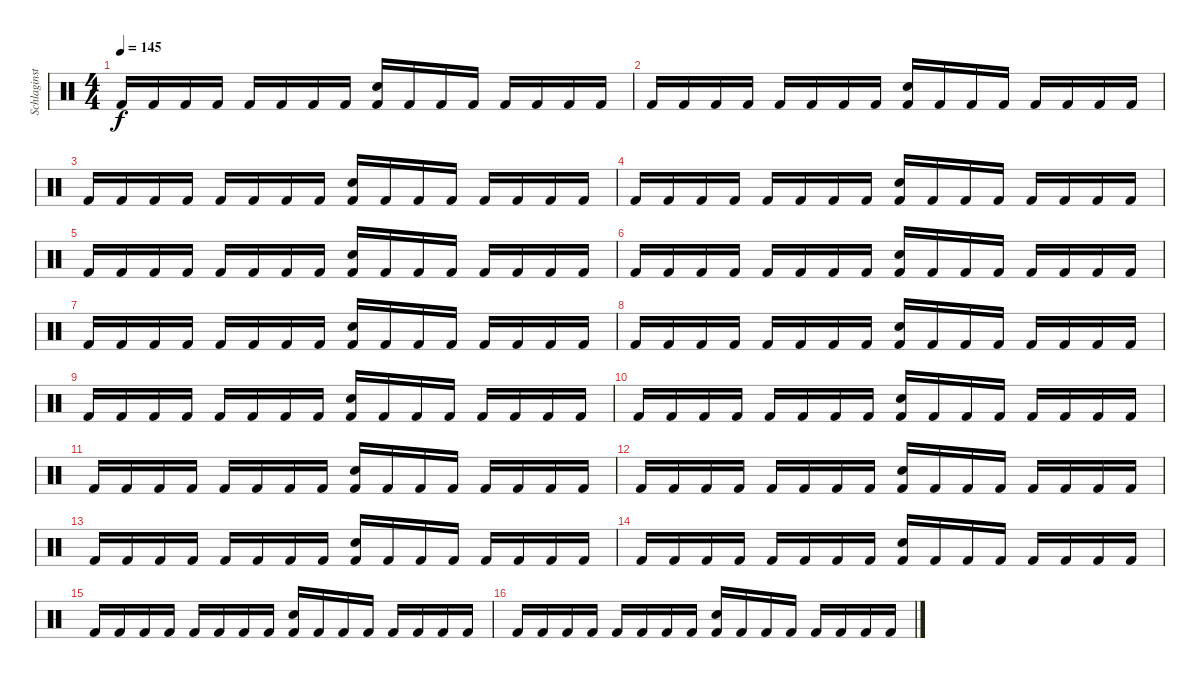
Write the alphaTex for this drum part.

\track ("Schlaginstrumente - Auswahl" "Schlaginst") {instrument percussion}
\staff {score}
\articulation defaults
\ts (4 4)
\tempo 145
\clef neutral
\ks c "Kick (hit) 2".16{dy f} "Kick (hit) 2".16 "Kick (hit) 2".16 "Kick (hit) 2".16 "Kick (hit) 2".16 "Kick (hit) 2".16 "Kick (hit) 2".16 "Kick (hit) 2".16
("Snare (hit) 2" "Kick (hit) 2").16 "Kick (hit) 2".16 "Kick (hit) 2".16 "Kick (hit) 2".16 "Kick (hit) 2".16 "Kick (hit) 2".16 "Kick (hit) 2".16 "Kick (hit) 2".16 |
"Kick (hit) 2".16 "Kick (hit) 2".16 "Kick (hit) 2".16 "Kick (hit) 2".16 "Kick (hit) 2".16 "Kick (hit) 2".16 "Kick (hit) 2".16 "Kick (hit) 2".16 ("Snare (hit) 2" "Kick (hit) 2").16 "Kick (hit) 2".16 "Kick (hit) 2".16 "Kick (hit) 2".16 "Kick (hit) 2".16 "Kick (hit) 2".16 "Kick (hit) 2".16 "Kick (hit) 2".16 |
"Kick (hit) 2".16 "Kick (hit) 2".16 "Kick (hit) 2".16 "Kick (hit) 2".16 "Kick (hit) 2".16 "Kick (hit) 2".16 "Kick (hit) 2".16 "Kick (hit) 2".16 ("Snare (hit) 2" "Kick (hit) 2").16 "Kick (hit) 2".16 "Kick (hit) 2".16 "Kick (hit) 2".16 "Kick (hit) 2".16 "Kick (hit) 2".16 "Kick (hit) 2".16 "Kick (hit) 2".16 |
"Kick (hit) 2".16 "Kick (hit) 2".16 "Kick (hit) 2".16 "Kick (hit) 2".16 "Kick (hit) 2".16 "Kick (hit) 2".16 "Kick (hit) 2".16 "Kick (hit) 2".16 ("Snare (hit) 2" "Kick (hit) 2").16 "Kick (hit) 2".16 "Kick (hit) 2".16 "Kick (hit) 2".16 "Kick (hit) 2".16 "Kick (hit) 2".16 "Kick (hit) 2".16 "Kick (hit) 2".16 |
"Kick (hit) 2".16 "Kick (hit) 2".16 "Kick (hit) 2".16 "Kick (hit) 2".16 "Kick (hit) 2".16 "Kick (hit) 2".16 "Kick (hit) 2".16 "Kick (hit) 2".16 ("Snare (hit) 2" "Kick (hit) 2").16 "Kick (hit) 2".16 "Kick (hit) 2".16 "Kick (hit) 2".16 "Kick (hit) 2".16 "Kick (hit) 2".16 "Kick (hit) 2".16 "Kick (hit) 2".16 |
"Kick (hit) 2".16 "Kick (hit) 2".16 "Kick (hit) 2".16 "Kick (hit) 2".16 "Kick (hit) 2".16 "Kick (hit) 2".16 "Kick (hit) 2".16 "Kick (hit) 2".16 ("Snare (hit) 2" "Kick (hit) 2").16 "Kick (hit) 2".16 "Kick (hit) 2".16 "Kick (hit) 2".16 "Kick (hit) 2".16 "Kick (hit) 2".16 "Kick (hit) 2".16 "Kick (hit) 2".16 |
"Kick (hit) 2".16 "Kick (hit) 2".16 "Kick (hit) 2".16 "Kick (hit) 2".16 "Kick (hit) 2".16 "Kick (hit) 2".16 "Kick (hit) 2".16 "Kick (hit) 2".16 ("Snare (hit) 2" "Kick (hit) 2").16 "Kick (hit) 2".16 "Kick (hit) 2".16 "Kick (hit) 2".16 "Kick (hit) 2".16 "Kick (hit) 2".16 "Kick (hit) 2".16 "Kick (hit) 2".16 |
"Kick (hit) 2".16 "Kick (hit) 2".16 "Kick (hit) 2".16 "Kick (hit) 2".16 "Kick (hit) 2".16 "Kick (hit) 2".16 "Kick (hit) 2".16 "Kick (hit) 2".16 ("Snare (hit) 2" "Kick (hit) 2").16 "Kick (hit) 2".16 "Kick (hit) 2".16 "Kick (hit) 2".16 "Kick (hit) 2".16 "Kick (hit) 2".16 "Kick (hit) 2".16 "Kick (hit) 2".16 |
"Kick (hit) 2".16 "Kick (hit) 2".16 "Kick (hit) 2".16 "Kick (hit) 2".16 "Kick (hit) 2".16 "Kick (hit) 2".16 "Kick (hit) 2".16 "Kick (hit) 2".16 ("Snare (hit) 2" "Kick (hit) 2").16 "Kick (hit) 2".16 "Kick (hit) 2".16 "Kick (hit) 2".16 "Kick (hit) 2".16 "Kick (hit) 2".16 "Kick (hit) 2".16 "Kick (hit) 2".16 |
"Kick (hit) 2".16 "Kick (hit) 2".16 "Kick (hit) 2".16 "Kick (hit) 2".16 "Kick (hit) 2".16 "Kick (hit) 2".16 "Kick (hit) 2".16 "Kick (hit) 2".16 ("Snare (hit) 2" "Kick (hit) 2").16 "Kick (hit) 2".16 "Kick (hit) 2".16 "Kick (hit) 2".16 "Kick (hit) 2".16 "Kick (hit) 2".16 "Kick (hit) 2".16 "Kick (hit) 2".16 |
"Kick (hit) 2".16 "Kick (hit) 2".16 "Kick (hit) 2".16 "Kick (hit) 2".16 "Kick (hit) 2".16 "Kick (hit) 2".16 "Kick (hit) 2".16 "Kick (hit) 2".16 ("Snare (hit) 2" "Kick (hit) 2").16 "Kick (hit) 2".16 "Kick (hit) 2".16 "Kick (hit) 2".16 "Kick (hit) 2".16 "Kick (hit) 2".16 "Kick (hit) 2".16 "Kick (hit) 2".16 |
"Kick (hit) 2".16 "Kick (hit) 2".16 "Kick (hit) 2".16 "Kick (hit) 2".16 "Kick (hit) 2".16 "Kick (hit) 2".16 "Kick (hit) 2".16 "Kick (hit) 2".16 ("Snare (hit) 2" "Kick (hit) 2").16 "Kick (hit) 2".16 "Kick (hit) 2".16 "Kick (hit) 2".16 "Kick (hit) 2".16 "Kick (hit) 2".16 "Kick (hit) 2".16 "Kick (hit) 2".16 |
"Kick (hit) 2".16 "Kick (hit) 2".16 "Kick (hit) 2".16 "Kick (hit) 2".16 "Kick (hit) 2".16 "Kick (hit) 2".16 "Kick (hit) 2".16 "Kick (hit) 2".16 ("Snare (hit) 2" "Kick (hit) 2").16 "Kick (hit) 2".16 "Kick (hit) 2".16 "Kick (hit) 2".16 "Kick (hit) 2".16 "Kick (hit) 2".16 "Kick (hit) 2".16 "Kick (hit) 2".16 |
"Kick (hit) 2".16 "Kick (hit) 2".16 "Kick (hit) 2".16 "Kick (hit) 2".16 "Kick (hit) 2".16 "Kick (hit) 2".16 "Kick (hit) 2".16 "Kick (hit) 2".16 ("Snare (hit) 2" "Kick (hit) 2").16 "Kick (hit) 2".16 "Kick (hit) 2".16 "Kick (hit) 2".16 "Kick (hit) 2".16 "Kick (hit) 2".16 "Kick (hit) 2".16 "Kick (hit) 2".16 |
"Kick (hit) 2".16 "Kick (hit) 2".16 "Kick (hit) 2".16 "Kick (hit) 2".16 "Kick (hit) 2".16 "Kick (hit) 2".16 "Kick (hit) 2".16 "Kick (hit) 2".16 ("Snare (hit) 2" "Kick (hit) 2").16 "Kick (hit) 2".16 "Kick (hit) 2".16 "Kick (hit) 2".16 "Kick (hit) 2".16 "Kick (hit) 2".16 "Kick (hit) 2".16 "Kick (hit) 2".16 |
"Kick (hit) 2".16 "Kick (hit) 2".16 "Kick (hit) 2".16 "Kick (hit) 2".16 "Kick (hit) 2".16 "Kick (hit) 2".16 "Kick (hit) 2".16 "Kick (hit) 2".16 ("Snare (hit) 2" "Kick (hit) 2").16 "Kick (hit) 2".16 "Kick (hit) 2".16 "Kick (hit) 2".16 "Kick (hit) 2".16 "Kick (hit) 2".16 "Kick (hit) 2".16 "Kick (hit) 2".16
